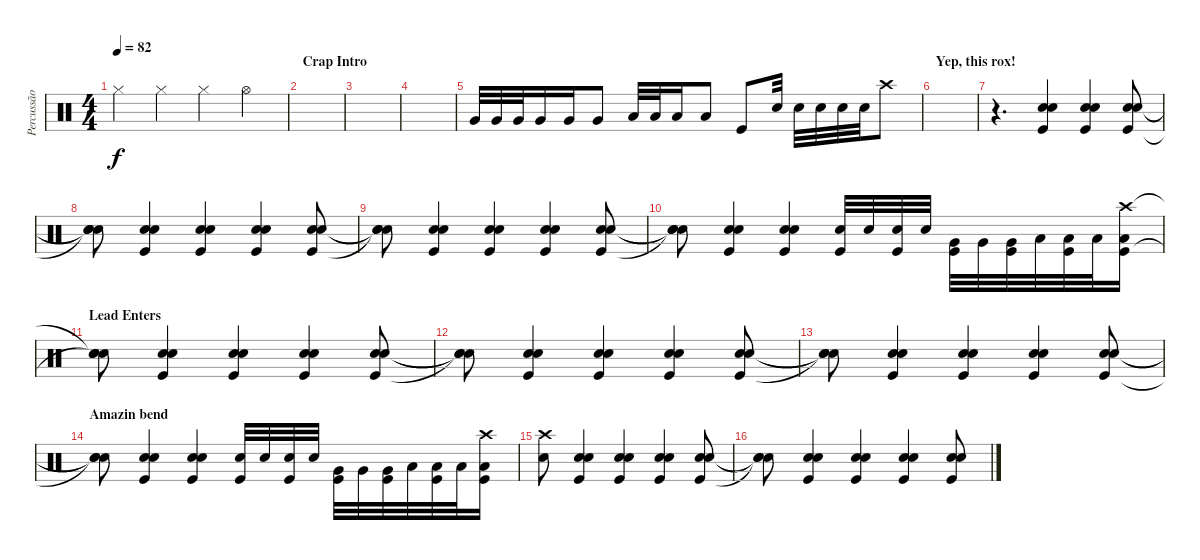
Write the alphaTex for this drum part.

\track ("Percussão" "Percussão") {instrument percussion}
\staff {score}
\articulation defaults
\ts (4 4)
\tempo 82
\clef neutral
\ks c "Hi-Hat (closed)".4{dy f} "Hi-Hat (closed)".4 "Hi-Hat (closed)".4 "Hi-Hat (open)".4
|
\section ("" "Crap Intro")
|
|
|
"Very Low Tom (hit)".32 "Very Low Tom (hit)".32 "Very Low Tom (hit)".32 "Very Low Tom (hit)".16 "Very Low Tom (hit)".16 "Very Low Tom (hit)".8 "Low Floor Tom (hit)".32 "Low Floor Tom (hit)".32 "Low Floor Tom (hit)".16 "Low Floor Tom (hit)".8 "Kick (hit)".8 "Snare (hit) 2".32 "Snare (hit) 2".32 "Snare (hit) 2".32 "Snare (hit) 2".32 "Snare (hit) 2".32 "Crash high (hit)".8 |
\section ("" "Yep, this rox!")
|
r.4{d} ("Snare (hit) 2" "Snare (hit) 2" "Kick (hit)").4{bd 60} ("Snare (hit) 2" "Snare (hit) 2" "Kick (hit)").4{bd 60} ("Snare (hit) 2" "Snare (hit) 2" "Kick (hit)").8{bd 60} |
("Snare (hit)"{t} "Snare (hit)"{t} "Snare (hit)"{t}).8 ("Snare (hit) 2" "Snare (hit) 2" "Kick (hit)").4{bd 60} ("Snare (hit) 2" "Snare (hit) 2" "Kick (hit)").4{bd 60} ("Snare (hit) 2" "Snare (hit) 2" "Kick (hit)").4{bd 60} ("Snare (hit) 2" "Snare (hit) 2" "Kick (hit)").8{bd 60} |
("Snare (hit)"{t} "Snare (hit)"{t} "Snare (hit)"{t}).8 ("Snare (hit) 2" "Snare (hit) 2" "Kick (hit)").4{bd 60} ("Snare (hit) 2" "Snare (hit) 2" "Kick (hit)").4{bd 60} ("Snare (hit) 2" "Snare (hit) 2" "Kick (hit)").4{bd 60} ("Snare (hit) 2" "Snare (hit) 2" "Kick (hit)").8{bd 60} |
("Snare (hit)"{t} "Snare (hit)"{t} "Snare (hit)"{t}).8 ("Snare (hit) 2" "Snare (hit) 2" "Kick (hit)").4{bd 60} ("Snare (hit) 2" "Snare (hit) 2" "Kick (hit)").4{bd 60} ("Snare (hit) 2" "Kick (hit)").32 "Snare (hit) 2".32 ("Snare (hit) 2" "Kick (hit)").32 "Snare (hit) 2".32 ("Very Low Tom (hit)" "Kick (hit)").32 "Very Low Tom (hit)".32 ("Very Low Tom (hit)" "Kick (hit)").32 "Low Floor Tom (hit)".32 ("Low Floor Tom (hit)" "Kick (hit)").32 "Low Floor Tom (hit)".32 ("Crash high (hit)" "Low Floor Tom (hit)" "Kick (hit)").16 |
\section ("" "Lead Enters")
("Snare (hit)"{t} "Metronome (bell)" "Snare (hit)"{t} "Snare (hit)").8 ("Snare (hit) 2" "Snare (hit) 2" "Kick (hit)").4{bd 60} ("Snare (hit) 2" "Snare (hit) 2" "Kick (hit)").4{bd 60} ("Snare (hit) 2" "Snare (hit) 2" "Kick (hit)").4{bd 60} ("Snare (hit) 2" "Snare (hit) 2" "Kick (hit)").8{bd 60} |
("Snare (hit)"{t} "Snare (hit)"{t} "Snare (hit)"{t}).8 ("Snare (hit) 2" "Snare (hit) 2" "Kick (hit)").4{bd 60} ("Snare (hit) 2" "Snare (hit) 2" "Kick (hit)").4{bd 60} ("Snare (hit) 2" "Snare (hit) 2" "Kick (hit)").4{bd 60} ("Snare (hit) 2" "Snare (hit) 2" "Kick (hit)").8{bd 60} |
("Snare (hit)"{t} "Snare (hit)"{t} "Snare (hit)"{t}).8 ("Snare (hit) 2" "Snare (hit) 2" "Kick (hit)").4{bd 60} ("Snare (hit) 2" "Snare (hit) 2" "Kick (hit)").4{bd 60} ("Snare (hit) 2" "Snare (hit) 2" "Kick (hit)").4{bd 60} ("Snare (hit) 2" "Snare (hit) 2" "Kick (hit)").8{bd 60} |
\section ("" "Amazin bend")
("Snare (hit)"{t} "Snare (hit)"{t} "Snare (hit)"{t}).8 ("Snare (hit) 2" "Snare (hit) 2" "Kick (hit)").4{bd 60} ("Snare (hit) 2" "Snare (hit) 2" "Kick (hit)").4{bd 60} ("Snare (hit) 2" "Kick (hit)").32 "Snare (hit) 2".32 ("Snare (hit) 2" "Kick (hit)").32 "Snare (hit) 2".32 ("Very Low Tom (hit)" "Kick (hit)").32 "Very Low Tom (hit)".32 ("Very Low Tom (hit)" "Kick (hit)").32 "Low Floor Tom (hit)".32 ("Low Floor Tom (hit)" "Kick (hit)").32 "Low Floor Tom (hit)".32 ("Crash high (hit)" "Low Floor Tom (hit)" "Kick (hit)").16 |
("Crash high (hit)" "Snare (hit) 2").8 ("Snare (hit) 2" "Snare (hit) 2" "Kick (hit)").4{bd 120} ("Snare (hit) 2" "Snare (hit) 2" "Kick (hit)").4{bd 120} ("Snare (hit) 2" "Snare (hit) 2" "Kick (hit)").4{bd 120} ("Snare (hit) 2" "Snare (hit) 2" "Kick (hit)").8{bd 120} |
("Snare (hit)"{t} "Snare (hit)"{t} "Snare (hit)"{t}).8 ("Snare (hit) 2" "Snare (hit) 2" "Kick (hit)").4{bd 60} ("Snare (hit) 2" "Snare (hit) 2" "Kick (hit)").4{bd 60} ("Snare (hit) 2" "Snare (hit) 2" "Kick (hit)").4{bd 60} ("Snare (hit) 2" "Snare (hit) 2" "Kick (hit)").8{bd 60}
